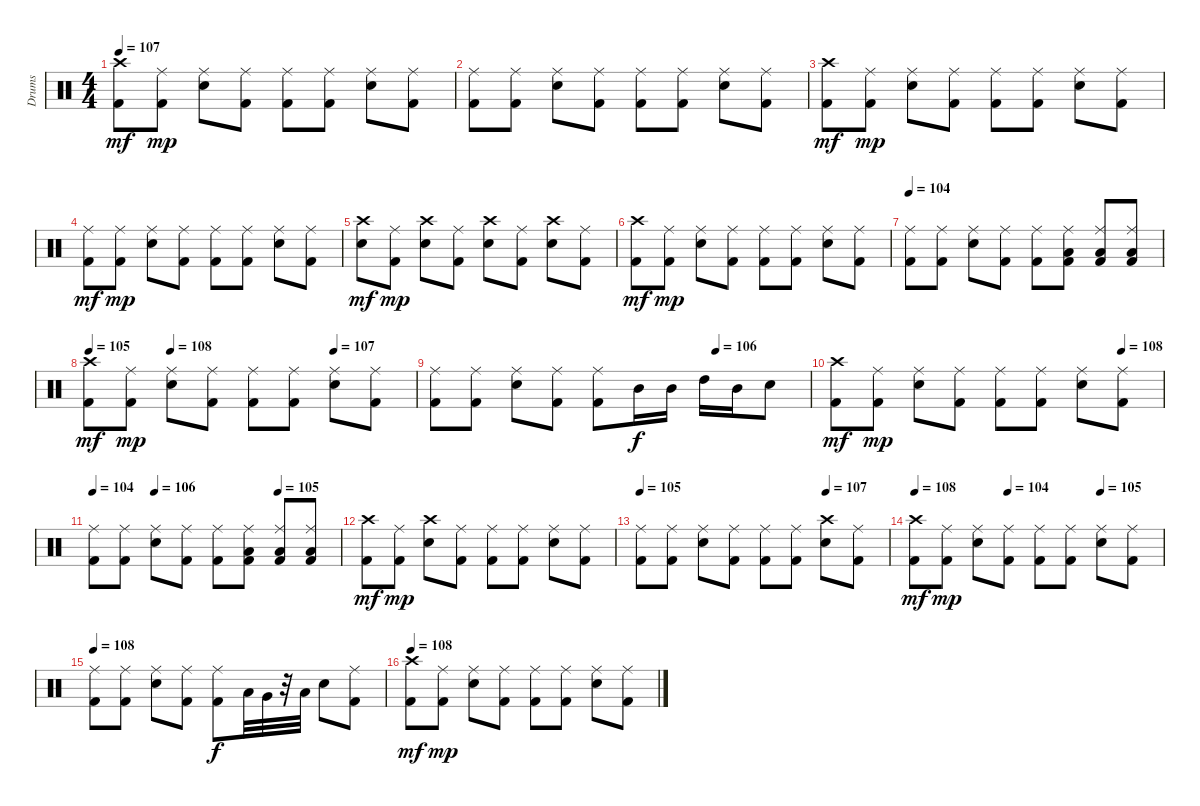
\track ("Drums" "Drums") {instrument percussion}
\staff {score}
\articulation defaults
\ts (4 4)
\tempo 107
\clef neutral
\ks c
("Kick (hit) 2" "Crash high (hit)").8{dy mf} ("Ride (middle)" "Kick (hit) 2").8{dy mp} ("Ride (middle)" "Electric Snare (hit)").8 ("Ride (middle)" "Kick (hit) 2").8 ("Kick (hit) 2" "Ride (middle)").8 ("Kick (hit) 2" "Ride (middle)").8 ("Electric Snare (hit)" "Ride (middle)").8 ("Kick (hit) 2" "Ride (middle)").8 |
("Kick (hit) 2" "Ride (middle)").8 ("Ride (middle)" "Kick (hit) 2").8 ("Ride (middle)" "Electric Snare (hit)").8 ("Ride (middle)" "Kick (hit) 2").8 ("Ride (middle)" "Kick (hit) 2").8 ("Ride (middle)" "Kick (hit) 2").8 ("Electric Snare (hit)" "Ride (middle)").8 ("Ride (middle)" "Kick (hit) 2").8 |
("Kick (hit) 2" "Crash high (hit)").8{dy mf} ("Kick (hit) 2" "Ride (middle)").8{dy mp} ("Ride (middle)" "Electric Snare (hit)").8 ("Kick (hit) 2" "Ride (middle)").8 ("Kick (hit) 2" "Ride (middle)").8 ("Ride (middle)" "Kick (hit) 2").8 ("Electric Snare (hit)" "Ride (middle)").8 ("Ride (middle)" "Kick (hit) 2").8 |
("Kick (hit) 2" "Ride (middle)").8{dy mf} ("Kick (hit) 2" "Ride (middle)").8{dy mp} ("Electric Snare (hit)" "Ride (middle)").8 ("Kick (hit) 2" "Ride (middle)").8 ("Kick (hit) 2" "Ride (middle)").8 ("Ride (middle)" "Kick (hit) 2").8 ("Ride (middle)" "Electric Snare (hit)").8 ("Ride (middle)" "Kick (hit) 2").8 |
("Crash high (hit)" "Electric Snare (hit)").8{dy mf} ("Kick (hit) 2" "Ride (middle)").8{dy mp} ("Crash high (hit)" "Electric Snare (hit)").8 ("Ride (middle)" "Kick (hit) 2").8 ("Electric Snare (hit)" "Crash high (hit)").8 ("Kick (hit) 2" "Ride (middle)").8 ("Crash high (hit)" "Electric Snare (hit)").8 ("Kick (hit) 2" "Ride (middle)").8 |
("Kick (hit) 2" "Crash high (hit)").8{dy mf} ("Kick (hit) 2" "Ride (middle)").8{dy mp} ("Ride (middle)" "Electric Snare (hit)").8 ("Ride (middle)" "Kick (hit) 2").8 ("Ride (middle)" "Kick (hit) 2").8 ("Ride (middle)" "Kick (hit) 2").8 ("Ride (middle)" "Electric Snare (hit)").8 ("Ride (middle)" "Kick (hit) 2").8 |
\tempo 104
("Ride (middle)" "Kick (hit) 2").8 ("Ride (middle)" "Kick (hit) 2").8 ("Electric Snare (hit)" "Ride (middle)").8 ("Ride (middle)" "Kick (hit) 2").8 ("Ride (middle)" "Kick (hit) 2").8 ("Low Floor Tom (hit)" "Kick (hit) 2" "Ride (middle)").8 ("Low Floor Tom (hit)" "Ride (middle)" "Kick (hit) 2").8 ("Kick (hit) 2" "Low Floor Tom (hit)" "Ride (middle)").8 |
\tempo 105
\tempo (108 0.25)
\tempo (107 0.75)
("Crash high (hit)" "Kick (hit) 2").8{dy mf} ("Kick (hit) 2" "Ride (middle)").8{dy mp} ("Ride (middle)" "Electric Snare (hit)").8 ("Kick (hit) 2" "Ride (middle)").8 ("Ride (middle)" "Kick (hit) 2").8 ("Kick (hit) 2" "Ride (middle)").8 ("Electric Snare (hit)" "Ride (middle)").8 ("Kick (hit) 2" "Ride (middle)").8 |
\tempo (106 0.75)
("Kick (hit) 2" "Ride (middle)").8 ("Kick (hit) 2" "Ride (middle)").8 ("Electric Snare (hit)" "Ride (middle)").8 ("Kick (hit) 2" "Ride (middle)").8 ("Kick (hit) 2" "Ride (middle)").8 "Mid Tom (hit)".16{dy f} "Mid Tom (hit)".16 "High Tom (hit)".16 "Mid Tom (hit)".16 "Electric Snare (hit)".8 |
\tempo (108 0.875)
("Crash high (hit)" "Kick (hit) 2").8{dy mf} ("Kick (hit) 2" "Ride (middle)").8{dy mp} ("Electric Snare (hit)" "Ride (middle)").8 ("Kick (hit) 2" "Ride (middle)").8 ("Ride (middle)" "Kick (hit) 2").8 ("Ride (middle)" "Kick (hit) 2").8 ("Electric Snare (hit)" "Ride (middle)").8 ("Ride (middle)" "Kick (hit) 2").8 |
\tempo 104
\tempo (106 0.25)
\tempo (105 0.75)
("Ride (middle)" "Kick (hit) 2").8 ("Kick (hit) 2" "Ride (middle)").8 ("Ride (middle)" "Electric Snare (hit)").8 ("Kick (hit) 2" "Ride (middle)").8 ("Ride (middle)" "Kick (hit) 2").8 ("Low Floor Tom (hit)" "Kick (hit) 2" "Ride (middle)").8 ("Kick (hit) 2" "Ride (middle)" "Low Floor Tom (hit)").8 ("Low Floor Tom (hit)" "Kick (hit) 2" "Ride (middle)").8 |
("Kick (hit) 2" "Crash high (hit)").8{dy mf} ("Ride (middle)" "Kick (hit) 2").8{dy mp} ("Electric Snare (hit)" "Crash high (hit)").8 ("Ride (middle)" "Kick (hit) 2").8 ("Ride (middle)" "Kick (hit) 2").8 ("Kick (hit) 2" "Ride (middle)").8 ("Electric Snare (hit)" "Ride (middle)").8 ("Ride (middle)" "Kick (hit) 2").8 |
\tempo 105
\tempo (107 0.75)
("Kick (hit) 2" "Ride (middle)").8 ("Ride (middle)" "Kick (hit) 2").8 ("Ride (middle)" "Electric Snare (hit)").8 ("Kick (hit) 2" "Ride (middle)").8 ("Ride (middle)" "Kick (hit) 2").8 ("Kick (hit) 2" "Ride (middle)").8 ("Crash high (hit)" "Snare (hit) 2").8 ("Ride (middle)" "Kick (hit) 2").8 |
\tempo 108
\tempo (104 0.375)
\tempo (105 0.75)
("Kick (hit) 2" "Crash high (hit)").8{dy mf} ("Ride (middle)" "Kick (hit) 2").8{dy mp} ("Electric Snare (hit)" "Ride (middle)").8 ("Kick (hit) 2" "Ride (middle)").8 ("Ride (middle)" "Kick (hit) 2").8 ("Kick (hit) 2" "Ride (middle)").8 ("Electric Snare (hit)" "Ride (middle)").8 ("Ride (middle)" "Kick (hit) 2").8 |
\tempo 108
("Kick (hit) 2" "Ride (middle)").8 ("Kick (hit) 2" "Ride (middle)").8 ("Electric Snare (hit)" "Ride (middle)").8 ("Ride (middle)" "Kick (hit) 2").8 ("Kick (hit) 2" "Ride (middle)").8{dy f} "Low Tom (hit)".32 "Very Low Tom (hit)".32 r.32 "Low Floor Tom (hit)".32 "Electric Snare (hit)".8 ("Kick (hit) 2" "Ride (middle)").8 |
\tempo 108
("Crash high (hit)" "Kick (hit) 2").8{dy mf} ("Kick (hit) 2" "Ride (middle)").8{dy mp} ("Ride (middle)" "Electric Snare (hit)").8 ("Kick (hit) 2" "Ride (middle)").8 ("Kick (hit) 2" "Ride (middle)").8 ("Ride (middle)" "Kick (hit) 2").8 ("Electric Snare (hit)" "Ride (middle)").8 ("Ride (middle)" "Kick (hit) 2").8
